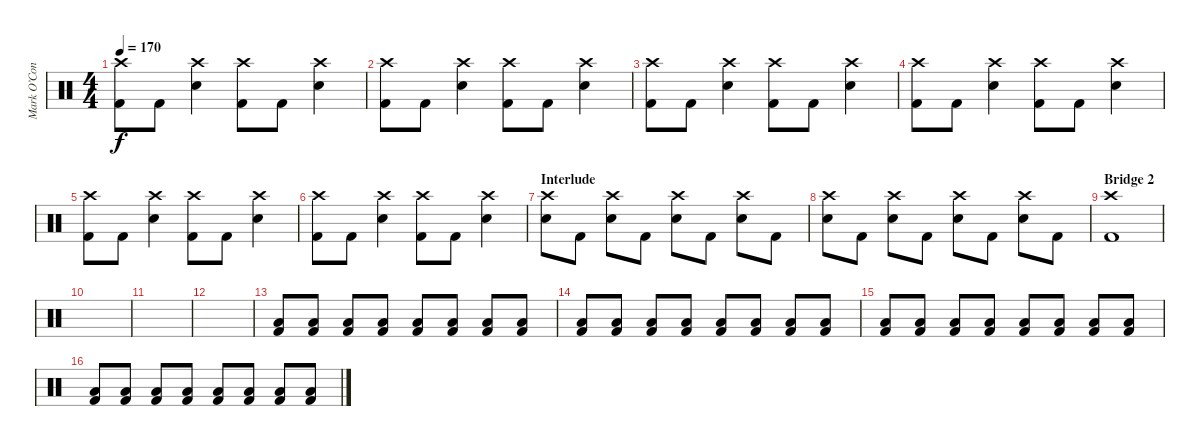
\track ("Mark O’Connell - Drums" "Mark O’Con") {instrument percussion}
\staff {score}
\articulation defaults
\ts (4 4)
\tempo 170
\clef neutral
\ks c
("Crash high (hit)" "Kick (hit) 2").8{dy f} "Kick (hit) 2".8 ("Crash high (hit)" "Snare (hit) 2").4 ("Crash high (hit)" "Kick (hit) 2").8 "Kick (hit) 2".8 ("Crash high (hit)" "Snare (hit) 2").4 |
("Crash high (hit)" "Kick (hit) 2").8 "Kick (hit) 2".8 ("Crash high (hit)" "Snare (hit) 2").4 ("Crash high (hit)" "Kick (hit) 2").8 "Kick (hit) 2".8 ("Crash high (hit)" "Snare (hit) 2").4 |
("Crash high (hit)" "Kick (hit) 2").8 "Kick (hit) 2".8 ("Crash high (hit)" "Snare (hit) 2").4 ("Crash high (hit)" "Kick (hit) 2").8 "Kick (hit) 2".8 ("Crash high (hit)" "Snare (hit) 2").4 |
("Crash high (hit)" "Kick (hit) 2").8 "Kick (hit) 2".8 ("Crash high (hit)" "Snare (hit) 2").4 ("Crash high (hit)" "Kick (hit) 2").8 "Kick (hit) 2".8 ("Crash high (hit)" "Snare (hit) 2").4 |
("Crash high (hit)" "Kick (hit) 2").8 "Kick (hit) 2".8 ("Crash high (hit)" "Snare (hit) 2").4 ("Crash high (hit)" "Kick (hit) 2").8 "Kick (hit) 2".8 ("Crash high (hit)" "Snare (hit) 2").4 |
("Crash high (hit)" "Kick (hit) 2").8 "Kick (hit) 2".8 ("Crash high (hit)" "Snare (hit) 2").4 ("Crash high (hit)" "Kick (hit) 2").8 "Kick (hit) 2".8 ("Crash high (hit)" "Snare (hit) 2").4 |
\section ("" "Interlude")
("Crash high (hit)" "Snare (hit) 2").8 "Kick (hit) 2".8 ("Crash high (hit)" "Snare (hit) 2").8 "Kick (hit) 2".8 ("Crash high (hit)" "Snare (hit) 2").8 "Kick (hit) 2".8 ("Crash high (hit)" "Snare (hit) 2").8 "Kick (hit) 2".8 |
("Crash high (hit)" "Snare (hit) 2").8 "Kick (hit) 2".8 ("Crash high (hit)" "Snare (hit) 2").8 "Kick (hit) 2".8 ("Crash high (hit)" "Snare (hit) 2").8 "Kick (hit) 2".8 ("Crash high (hit)" "Snare (hit) 2").8 "Kick (hit) 2".8 |
\section ("" "Bridge 2")
("Crash high (hit)" "Kick (hit) 2").1 |
|
|
|
("Low Tom (hit)" "Kick (hit) 2").8{volume 10} ("Low Tom (hit)" "Kick (hit) 2").8{volume 13} ("Low Tom (hit)" "Kick (hit) 2").8 ("Low Tom (hit)" "Kick (hit) 2").8 ("Low Tom (hit)" "Kick (hit) 2").8 ("Low Tom (hit)" "Kick (hit) 2").8 ("Low Tom (hit)" "Kick (hit) 2").8 ("Low Tom (hit)" "Kick (hit) 2").8 |
("Low Tom (hit)" "Kick (hit) 2").8 ("Low Tom (hit)" "Kick (hit) 2").8 ("Low Tom (hit)" "Kick (hit) 2").8 ("Low Tom (hit)" "Kick (hit) 2").8 ("Low Tom (hit)" "Kick (hit) 2").8 ("Low Tom (hit)" "Kick (hit) 2").8 ("Low Tom (hit)" "Kick (hit) 2").8 ("Low Tom (hit)" "Kick (hit) 2").8 |
("Low Tom (hit)" "Kick (hit) 2").8 ("Low Tom (hit)" "Kick (hit) 2").8 ("Low Tom (hit)" "Kick (hit) 2").8 ("Low Tom (hit)" "Kick (hit) 2").8 ("Low Tom (hit)" "Kick (hit) 2").8 ("Low Tom (hit)" "Kick (hit) 2").8 ("Low Tom (hit)" "Kick (hit) 2").8 ("Low Tom (hit)" "Kick (hit) 2").8 |
("Low Tom (hit)" "Kick (hit) 2").8 ("Low Tom (hit)" "Kick (hit) 2").8 ("Low Tom (hit)" "Kick (hit) 2").8 ("Low Tom (hit)" "Kick (hit) 2").8 ("Low Tom (hit)" "Kick (hit) 2").8 ("Low Tom (hit)" "Kick (hit) 2").8 ("Low Tom (hit)" "Kick (hit) 2").8 ("Low Tom (hit)" "Kick (hit) 2").8
